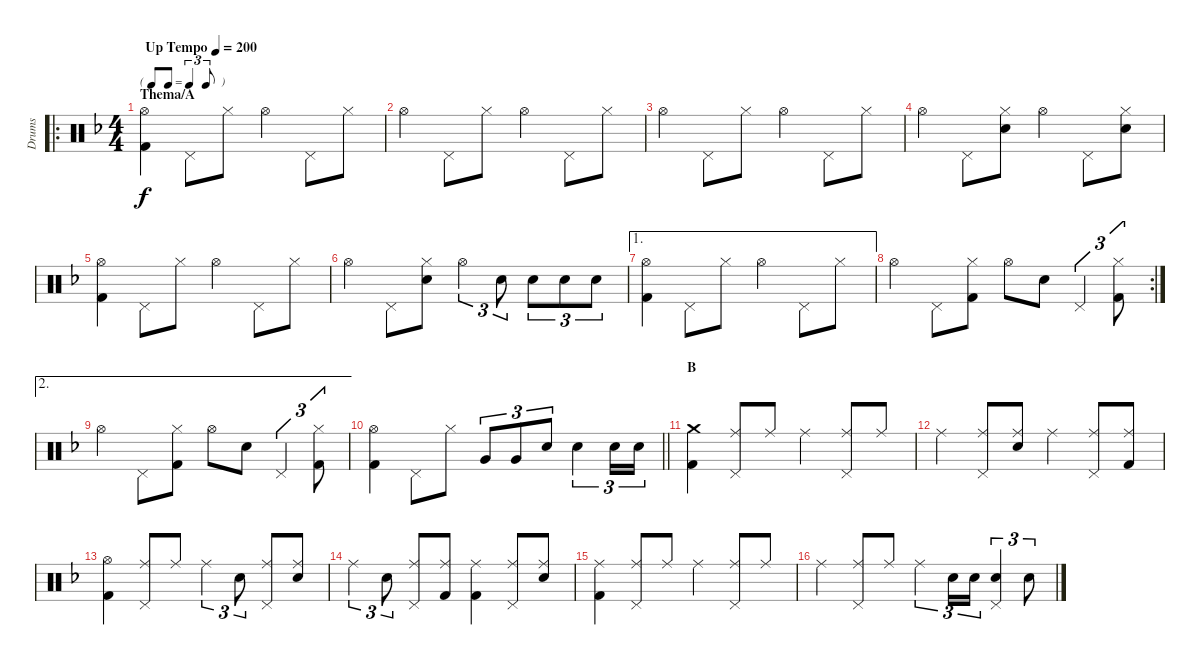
\track ("Drums" "Drums") {instrument percussion}
\staff {score}
\articulation defaults
\ro
\ts (4 4)
\tf triplet8th
\section ("" "Thema/A")
\tempo (200 "Up Tempo")
\clef neutral
\ks f
("Hi-Hat (open)" "Kick (hit) 2").4{dy f} "Pedal Hi-Hat (hit)".8 "Hi-Hat (closed)".8 "Hi-Hat (open)".4 "Pedal Hi-Hat (hit)".8 "Hi-Hat (closed)".8 |
"Hi-Hat (open)".4 "Pedal Hi-Hat (hit)".8 "Hi-Hat (closed)".8 "Hi-Hat (open)".4 "Pedal Hi-Hat (hit)".8 "Hi-Hat (closed)".8 |
"Hi-Hat (open)".4 "Pedal Hi-Hat (hit)".8 "Hi-Hat (closed)".8 "Hi-Hat (open)".4 "Pedal Hi-Hat (hit)".8 "Hi-Hat (closed)".8 |
"Hi-Hat (open)".4 "Pedal Hi-Hat (hit)".8 ("Hi-Hat (closed)" "Snare (hit) 2").8 "Hi-Hat (open)".4 "Pedal Hi-Hat (hit)".8 ("Hi-Hat (closed)" "Snare (hit) 2").8 |
("Hi-Hat (open)" "Kick (hit) 2").4 "Pedal Hi-Hat (hit)".8 "Hi-Hat (closed)".8 "Hi-Hat (open)".4 "Pedal Hi-Hat (hit)".8 "Hi-Hat (closed)".8 |
"Hi-Hat (open)".4 "Pedal Hi-Hat (hit)".8 ("Hi-Hat (closed)" "Snare (hit) 2").8 "Hi-Hat (open)".4{tu (3 2)} "Snare (hit) 2".8{tu (3 2)} "Snare (hit) 2".8{tu (3 2)} "Snare (hit) 2".8{tu (3 2)} "Snare (hit) 2".8{tu (3 2)} |
\ae 1
("Hi-Hat (open)" "Kick (hit) 2").4 "Pedal Hi-Hat (hit)".8 "Hi-Hat (closed)".8 "Hi-Hat (open)".4 "Pedal Hi-Hat (hit)".8 "Hi-Hat (closed)".8 |
\rc 2 "Hi-Hat (open)".4 "Pedal Hi-Hat (hit)".8
("Hi-Hat (closed)" "Kick (hit) 2").8 "Hi-Hat (open)".8 "Snare (hit) 2".8 "Pedal Hi-Hat (hit)".4{tu (3 2)} ("Hi-Hat (closed)" "Kick (hit) 2").8{tu (3 2)} |
\ae 2 "Hi-Hat (open)".4 "Pedal Hi-Hat (hit)".8
("Hi-Hat (closed)" "Kick (hit) 2").8 "Hi-Hat (open)".8 "Snare (hit) 2".8 "Pedal Hi-Hat (hit)".4{tu (3 2)} ("Hi-Hat (closed)" "Kick (hit) 2").8{tu (3 2)} |
\barLineRight lightlight
("Hi-Hat (open)" "Kick (hit) 2").4 "Pedal Hi-Hat (hit)".8 "Hi-Hat (closed)".8 "Very Low Tom (hit)".8{tu (3 2)} "Very Low Tom (hit)".8{tu (3 2)} "Snare (hit) 2".8{tu (3 2)} "Snare (hit) 2".4{tu (3 2)} "Snare (hit) 2".16{tu (3 2)} "Snare (hit) 2".16{tu (3 2)} |
\section ("" "B")
("Crash medium (hit)" "Kick (hit) 2").4 ("Ride (middle)" "Pedal Hi-Hat (hit)").8 "Ride (middle)".8 "Ride (middle)".4 ("Ride (middle)" "Pedal Hi-Hat (hit)").8 "Ride (middle)".8 |
"Ride (middle)".4 ("Ride (middle)" "Pedal Hi-Hat (hit)").8 ("Ride (middle)" "Snare (hit) 2").8 "Ride (middle)".4 ("Ride (middle)" "Pedal Hi-Hat (hit)").8 ("Ride (middle)" "Kick (hit) 2").8 |
("Hi-Hat (open)" "Kick (hit) 2").4 ("Ride (middle)" "Pedal Hi-Hat (hit)").8 "Ride (middle)".8 "Ride (middle)".4{tu (3 2)} "Snare (hit) 2".8{tu (3 2)} ("Ride (middle)" "Pedal Hi-Hat (hit)").8 ("Ride (middle)" "Snare (hit) 2").8 |
"Ride (middle)".4{tu (3 2)} "Snare (hit) 2".8{tu (3 2)} ("Ride (middle)" "Pedal Hi-Hat (hit)").8 ("Ride (middle)" "Kick (hit) 2").8 ("Ride (middle)" "Kick (hit) 2").4 ("Ride (middle)" "Pedal Hi-Hat (hit)").8 ("Ride (middle)" "Snare (hit) 2").8 |
("Ride (middle)" "Kick (hit) 2").4 ("Ride (middle)" "Pedal Hi-Hat (hit)").8 "Ride (middle)".8 "Ride (middle)".4 ("Ride (middle)" "Pedal Hi-Hat (hit)").8 "Ride (middle)".8 |
"Ride (middle)".4 ("Ride (middle)" "Pedal Hi-Hat (hit)").8 "Ride (middle)".8 "Ride (middle)".4{tu (3 2)} "Snare (hit) 2".16{tu (3 2)} "Snare (hit) 2".16{tu (3 2)} ("Pedal Hi-Hat (hit)" "Snare (hit) 2").4{tu (3 2)} "Snare (hit) 2".8{tu (3 2)}
